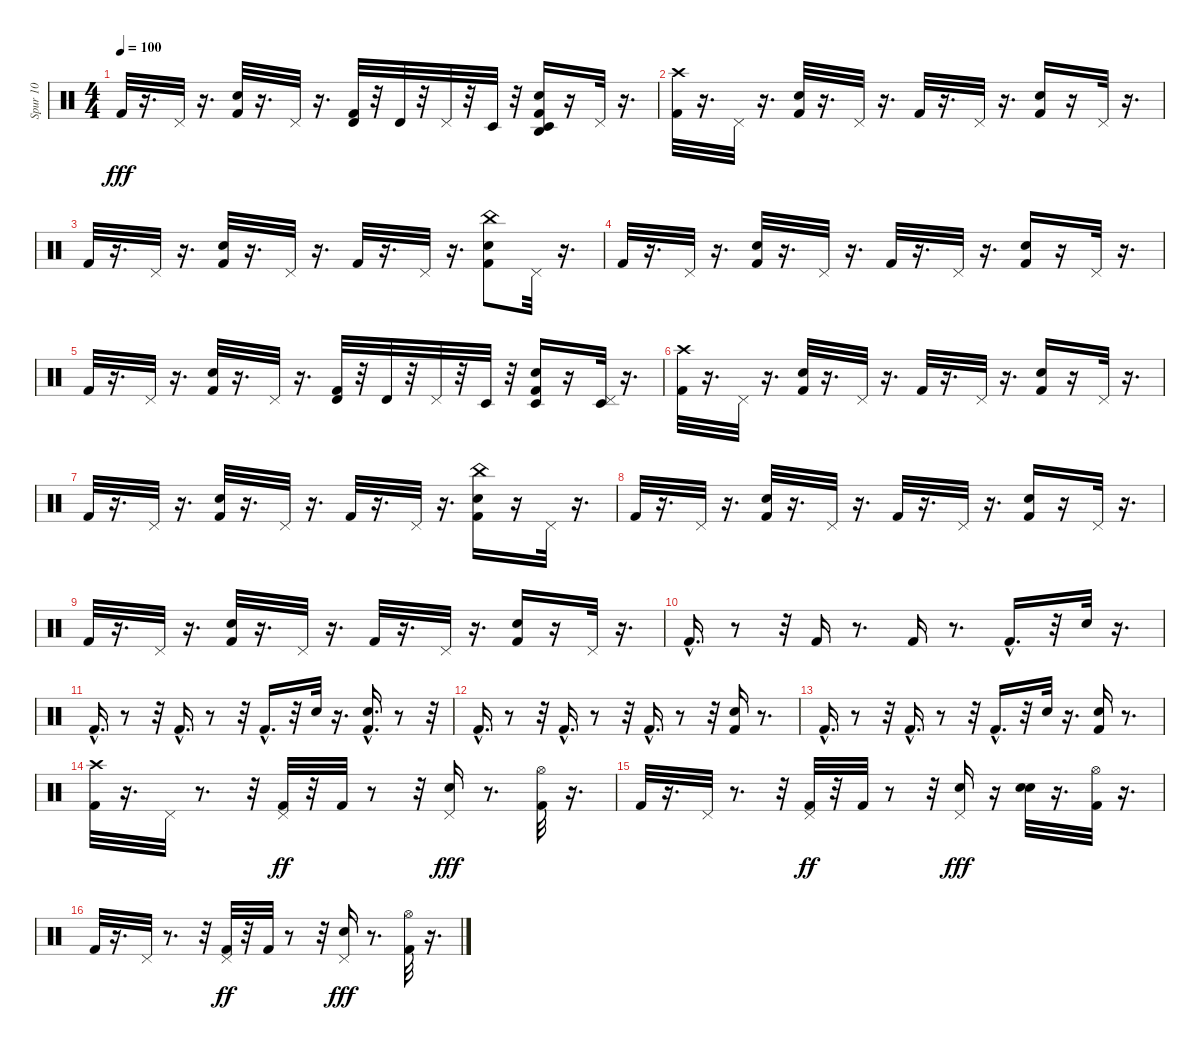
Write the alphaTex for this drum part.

\track ("Spur 10" "Spur 10") {instrument percussion}
\staff {score}
\articulation defaults
\ts (4 4)
\tempo 100
\clef neutral
\ks c "Kick (hit) 2".32{dy fff}
r.16{d} "Pedal Hi-Hat (hit)".32 r.16{d} ("Electric Snare (hit)" "Kick (hit) 2").32 r.16{d} "Pedal Hi-Hat (hit)".32 r.16{d} ("Kick (hit) 2" "Timbale high (hit)").32 r.32 "Timbale high (hit)".32 r.32 "Pedal Hi-Hat (hit)".32 r.32 "Timbale low (hit)".32 r.32 ("Timbale low (hit)" "Agogo high (hit)" "Electric Snare (hit)" "Kick (hit) 2").16 r.16 "Pedal Hi-Hat (hit)".32 r.16{d} |
("Crash high (hit)" "Kick (hit) 2").32 r.16{d} "Pedal Hi-Hat (hit)".32 r.16{d} ("Electric Snare (hit)" "Kick (hit) 2").32 r.16{d} "Pedal Hi-Hat (hit)".32 r.16{d} "Kick (hit) 2".32 r.16{d} "Pedal Hi-Hat (hit)".32 r.16{d} ("Electric Snare (hit)" "Kick (hit) 2").16 r.16 "Pedal Hi-Hat (hit)".32 r.16{d} |
"Kick (hit) 2".32 r.16{d} "Pedal Hi-Hat (hit)".32 r.16{d} ("Electric Snare (hit)" "Kick (hit) 2").32 r.16{d} "Pedal Hi-Hat (hit)".32 r.16{d} "Kick (hit) 2".32 r.16{d} "Pedal Hi-Hat (hit)".32 r.16{d} ("China (hit)" "Electric Snare (hit)" "Kick (hit) 2").8 "Pedal Hi-Hat (hit)".32 r.16{d} |
"Kick (hit) 2".32 r.16{d} "Pedal Hi-Hat (hit)".32 r.16{d} ("Electric Snare (hit)" "Kick (hit) 2").32 r.16{d} "Pedal Hi-Hat (hit)".32 r.16{d} "Kick (hit) 2".32 r.16{d} "Pedal Hi-Hat (hit)".32 r.16{d} ("Electric Snare (hit)" "Kick (hit) 2").16 r.16 "Pedal Hi-Hat (hit)".32 r.16{d} |
"Kick (hit) 2".32 r.16{d} "Pedal Hi-Hat (hit)".32 r.16{d} ("Electric Snare (hit)" "Kick (hit) 2").32 r.16{d} "Pedal Hi-Hat (hit)".32 r.16{d} ("Timbale high (hit)" "Kick (hit) 2").32 r.32 "Timbale high (hit)".32 r.32 "Pedal Hi-Hat (hit)".32 r.32 "Timbale low (hit)".32 r.32 ("Timbale low (hit)" "Electric Snare (hit)" "Kick (hit) 2").16 r.16 ("Timbale low (hit)" "Pedal Hi-Hat (hit)").32 r.16{d} |
("Crash high (hit)" "Kick (hit) 2").32 r.16{d} "Pedal Hi-Hat (hit)".32 r.16{d} ("Electric Snare (hit)" "Kick (hit) 2").32 r.16{d} "Pedal Hi-Hat (hit)".32 r.16{d} "Kick (hit) 2".32 r.16{d} "Pedal Hi-Hat (hit)".32 r.16{d} ("Electric Snare (hit)" "Kick (hit) 2").16 r.16 "Pedal Hi-Hat (hit)".32 r.16{d} |
"Kick (hit) 2".32 r.16{d} "Pedal Hi-Hat (hit)".32 r.16{d} ("Electric Snare (hit)" "Kick (hit) 2").32 r.16{d} "Pedal Hi-Hat (hit)".32 r.16{d} "Kick (hit) 2".32 r.16{d} "Pedal Hi-Hat (hit)".32 r.16{d} ("Electric Snare (hit)" "Kick (hit) 2" "China (hit)").16 r.16 "Pedal Hi-Hat (hit)".32 r.16{d} |
"Kick (hit) 2".32 r.16{d} "Pedal Hi-Hat (hit)".32 r.16{d} ("Electric Snare (hit)" "Kick (hit) 2").32 r.16{d} "Pedal Hi-Hat (hit)".32 r.16{d} "Kick (hit) 2".32 r.16{d} "Pedal Hi-Hat (hit)".32 r.16{d} ("Electric Snare (hit)" "Kick (hit) 2").16 r.16 "Pedal Hi-Hat (hit)".32 r.16{d} |
"Kick (hit) 2".32 r.16{d} "Pedal Hi-Hat (hit)".32 r.16{d} ("Electric Snare (hit)" "Kick (hit) 2").32 r.16{d} "Pedal Hi-Hat (hit)".32 r.16{d} "Kick (hit) 2".32 r.16{d} "Pedal Hi-Hat (hit)".32 r.16{d} ("Electric Snare (hit)" "Kick (hit) 2").16 r.16 "Pedal Hi-Hat (hit)".32 r.16{d} |
"Kick (hit) 2"{hac}.16{d} r.8 r.32 "Kick (hit) 2".16 r.8{d} "Kick (hit) 2".16 r.8{d} "Kick (hit) 2"{hac}.16{d} r.32 "Hand Clap (hit)".32 r.16{d} |
"Kick (hit) 2"{hac}.16{d} r.8 r.32 "Kick (hit) 2"{hac}.16{d} r.8 r.32 "Kick (hit) 2"{hac}.16{d} r.32 "Hand Clap (hit)".32 r.16{d} ("Hand Clap (hit)" "Kick (hit) 2"{hac}).16{d} r.8 r.32 |
"Kick (hit) 2"{hac}.16{d} r.8 r.32 "Kick (hit) 2"{hac}.16{d} r.8 r.32 "Kick (hit) 2"{hac}.16{d} r.8 r.32 ("Hand Clap (hit)" "Kick (hit) 2").16 r.8{d} |
"Kick (hit) 2"{hac}.16{d} r.8 r.32 "Kick (hit) 2"{hac}.16{d} r.8 r.32 "Kick (hit) 2"{hac}.16{d} r.32 "Hand Clap (hit)".32 r.16{d} ("Kick (hit) 2" "Hand Clap (hit)").16 r.8{d} |
("Kick (hit) 2" "Crash high (hit)").32 r.16{d} "Pedal Hi-Hat (hit)".32 r.8{d} r.32 ("Pedal Hi-Hat (hit)" "Kick (hit) 2").32{dy ff} r.32 "Kick (hit) 2".32 r.8 r.32 ("Hand Clap (hit)" "Pedal Hi-Hat (hit)").16{dy fff} r.8{d} ("Hi-Hat (open)" "Kick (hit) 2").32 r.16{d} |
"Kick (hit) 2".32 r.16{d} "Pedal Hi-Hat (hit)".32 r.8{d} r.32 ("Pedal Hi-Hat (hit)" "Kick (hit) 2").32{dy ff} r.32 "Kick (hit) 2".32 r.8 r.32 ("Hand Clap (hit)" "Pedal Hi-Hat (hit)").16{dy fff} r.16 ("Electric Snare (hit)" "Snare (hit) 2").32 r.16{d} ("Hi-Hat (open)" "Kick (hit) 2").32 r.16{d} |
"Kick (hit) 2".32 r.16{d} "Pedal Hi-Hat (hit)".32 r.8{d} r.32 ("Pedal Hi-Hat (hit)" "Kick (hit) 2").32{dy ff} r.32 "Kick (hit) 2".32 r.8 r.32 ("Hand Clap (hit)" "Pedal Hi-Hat (hit)").16{dy fff} r.8{d} ("Hi-Hat (open)" "Kick (hit) 2").32 r.16{d}
